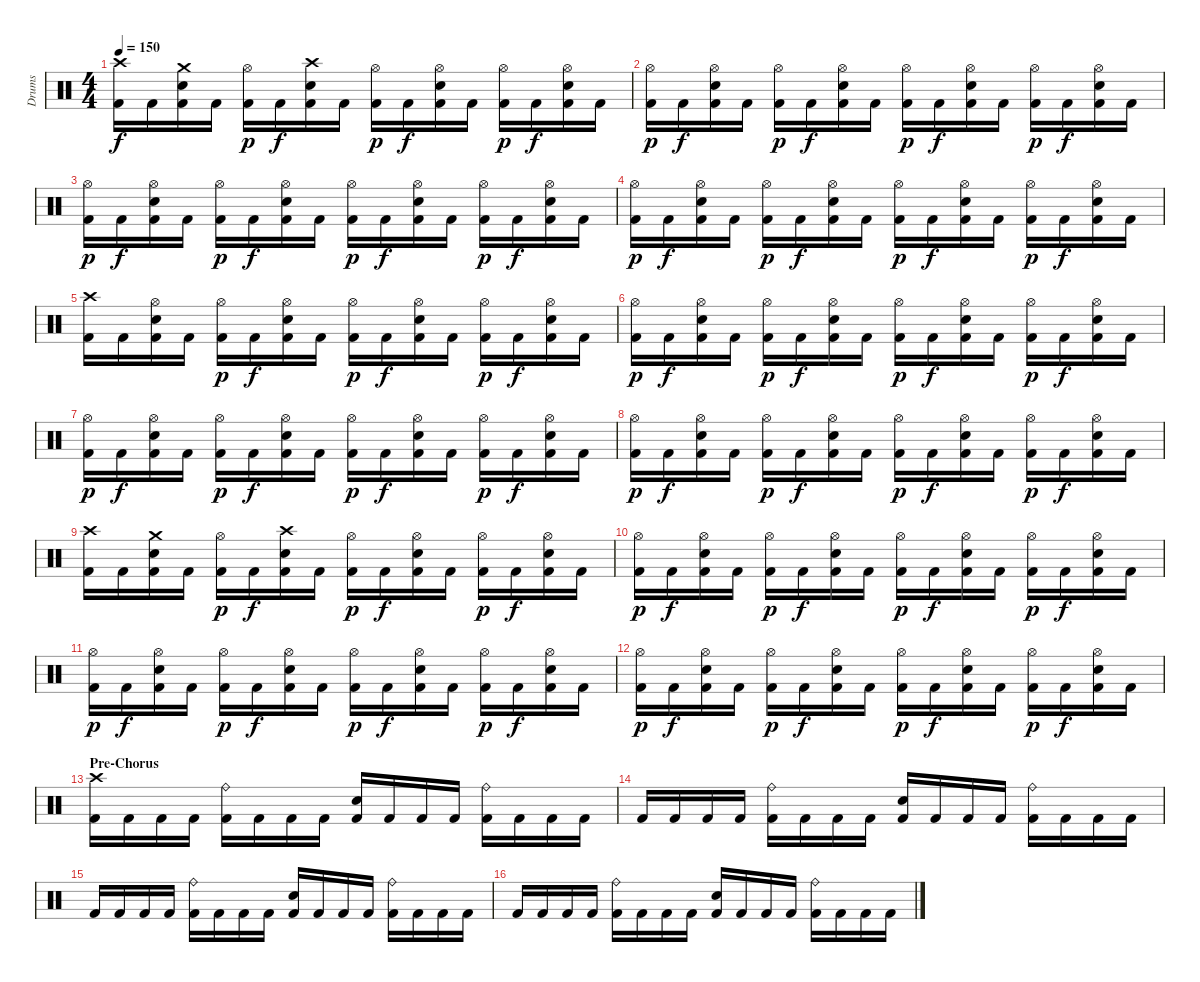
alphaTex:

\track ("Drums" "Drums") {instrument percussion}
\staff {score}
\articulation defaults
\ts (4 4)
\tempo 150
\clef neutral
\ks c
("Crash high (hit)" "Kick (hit) 2").16{dy f} "Kick (hit) 2".16 ("Crash medium (hit)" "Snare (hit) 2" "Kick (hit) 2").16 "Kick (hit) 2".16 ("Hi-Hat (open)" "Kick (hit) 2").16{dy p} "Kick (hit) 2".16{dy f} ("Crash high (hit)" "Snare (hit) 2" "Kick (hit) 2").16 "Kick (hit) 2".16 ("Hi-Hat (open)" "Kick (hit) 2").16{dy p} "Kick (hit) 2".16{dy f} ("Hi-Hat (open)" "Snare (hit) 2" "Kick (hit) 2").16 "Kick (hit) 2".16 ("Hi-Hat (open)" "Kick (hit) 2").16{dy p} "Kick (hit) 2".16{dy f} ("Hi-Hat (open)" "Snare (hit) 2" "Kick (hit) 2").16 "Kick (hit) 2".16 |
("Hi-Hat (open)" "Kick (hit) 2").16{dy p} "Kick (hit) 2".16{dy f} ("Hi-Hat (open)" "Snare (hit) 2" "Kick (hit) 2").16 "Kick (hit) 2".16 ("Hi-Hat (open)" "Kick (hit) 2").16{dy p} "Kick (hit) 2".16{dy f} ("Hi-Hat (open)" "Snare (hit) 2" "Kick (hit) 2").16 "Kick (hit) 2".16 ("Hi-Hat (open)" "Kick (hit) 2").16{dy p} "Kick (hit) 2".16{dy f} ("Hi-Hat (open)" "Snare (hit) 2" "Kick (hit) 2").16 "Kick (hit) 2".16 ("Hi-Hat (open)" "Kick (hit) 2").16{dy p} "Kick (hit) 2".16{dy f} ("Hi-Hat (open)" "Snare (hit) 2" "Kick (hit) 2").16 "Kick (hit) 2".16 |
("Hi-Hat (open)" "Kick (hit) 2").16{dy p} "Kick (hit) 2".16{dy f} ("Hi-Hat (open)" "Snare (hit) 2" "Kick (hit) 2").16 "Kick (hit) 2".16 ("Hi-Hat (open)" "Kick (hit) 2").16{dy p} "Kick (hit) 2".16{dy f} ("Hi-Hat (open)" "Snare (hit) 2" "Kick (hit) 2").16 "Kick (hit) 2".16 ("Hi-Hat (open)" "Kick (hit) 2").16{dy p} "Kick (hit) 2".16{dy f} ("Hi-Hat (open)" "Snare (hit) 2" "Kick (hit) 2").16 "Kick (hit) 2".16 ("Hi-Hat (open)" "Kick (hit) 2").16{dy p} "Kick (hit) 2".16{dy f} ("Hi-Hat (open)" "Snare (hit) 2" "Kick (hit) 2").16 "Kick (hit) 2".16 |
("Hi-Hat (open)" "Kick (hit) 2").16{dy p} "Kick (hit) 2".16{dy f} ("Hi-Hat (open)" "Snare (hit) 2" "Kick (hit) 2").16 "Kick (hit) 2".16 ("Hi-Hat (open)" "Kick (hit) 2").16{dy p} "Kick (hit) 2".16{dy f} ("Hi-Hat (open)" "Snare (hit) 2" "Kick (hit) 2").16 "Kick (hit) 2".16 ("Hi-Hat (open)" "Kick (hit) 2").16{dy p} "Kick (hit) 2".16{dy f} ("Hi-Hat (open)" "Snare (hit) 2" "Kick (hit) 2").16 "Kick (hit) 2".16 ("Hi-Hat (open)" "Kick (hit) 2").16{dy p} "Kick (hit) 2".16{dy f} ("Hi-Hat (open)" "Snare (hit) 2" "Kick (hit) 2").16 "Kick (hit) 2".16 |
("Crash high (hit)" "Kick (hit) 2").16 "Kick (hit) 2".16 ("Hi-Hat (open)" "Snare (hit) 2" "Kick (hit) 2").16 "Kick (hit) 2".16 ("Hi-Hat (open)" "Kick (hit) 2").16{dy p} "Kick (hit) 2".16{dy f} ("Hi-Hat (open)" "Snare (hit) 2" "Kick (hit) 2").16 "Kick (hit) 2".16 ("Hi-Hat (open)" "Kick (hit) 2").16{dy p} "Kick (hit) 2".16{dy f} ("Hi-Hat (open)" "Snare (hit) 2" "Kick (hit) 2").16 "Kick (hit) 2".16 ("Hi-Hat (open)" "Kick (hit) 2").16{dy p} "Kick (hit) 2".16{dy f} ("Hi-Hat (open)" "Snare (hit) 2" "Kick (hit) 2").16 "Kick (hit) 2".16 |
("Hi-Hat (open)" "Kick (hit) 2").16{dy p} "Kick (hit) 2".16{dy f} ("Hi-Hat (open)" "Snare (hit) 2" "Kick (hit) 2").16 "Kick (hit) 2".16 ("Hi-Hat (open)" "Kick (hit) 2").16{dy p} "Kick (hit) 2".16{dy f} ("Hi-Hat (open)" "Snare (hit) 2" "Kick (hit) 2").16 "Kick (hit) 2".16 ("Hi-Hat (open)" "Kick (hit) 2").16{dy p} "Kick (hit) 2".16{dy f} ("Hi-Hat (open)" "Snare (hit) 2" "Kick (hit) 2").16 "Kick (hit) 2".16 ("Hi-Hat (open)" "Kick (hit) 2").16{dy p} "Kick (hit) 2".16{dy f} ("Hi-Hat (open)" "Snare (hit) 2" "Kick (hit) 2").16 "Kick (hit) 2".16 |
("Hi-Hat (open)" "Kick (hit) 2").16{dy p} "Kick (hit) 2".16{dy f} ("Hi-Hat (open)" "Snare (hit) 2" "Kick (hit) 2").16 "Kick (hit) 2".16 ("Hi-Hat (open)" "Kick (hit) 2").16{dy p} "Kick (hit) 2".16{dy f} ("Hi-Hat (open)" "Snare (hit) 2" "Kick (hit) 2").16 "Kick (hit) 2".16 ("Hi-Hat (open)" "Kick (hit) 2").16{dy p} "Kick (hit) 2".16{dy f} ("Hi-Hat (open)" "Snare (hit) 2" "Kick (hit) 2").16 "Kick (hit) 2".16 ("Hi-Hat (open)" "Kick (hit) 2").16{dy p} "Kick (hit) 2".16{dy f} ("Hi-Hat (open)" "Snare (hit) 2" "Kick (hit) 2").16 "Kick (hit) 2".16 |
("Hi-Hat (open)" "Kick (hit) 2").16{dy p} "Kick (hit) 2".16{dy f} ("Hi-Hat (open)" "Snare (hit) 2" "Kick (hit) 2").16 "Kick (hit) 2".16 ("Hi-Hat (open)" "Kick (hit) 2").16{dy p} "Kick (hit) 2".16{dy f} ("Hi-Hat (open)" "Snare (hit) 2" "Kick (hit) 2").16 "Kick (hit) 2".16 ("Hi-Hat (open)" "Kick (hit) 2").16{dy p} "Kick (hit) 2".16{dy f} ("Hi-Hat (open)" "Snare (hit) 2" "Kick (hit) 2").16 "Kick (hit) 2".16 ("Hi-Hat (open)" "Kick (hit) 2").16{dy p} "Kick (hit) 2".16{dy f} ("Hi-Hat (open)" "Snare (hit) 2" "Kick (hit) 2").16 "Kick (hit) 2".16 |
("Crash high (hit)" "Kick (hit) 2").16 "Kick (hit) 2".16 ("Crash medium (hit)" "Snare (hit) 2" "Kick (hit) 2").16 "Kick (hit) 2".16 ("Hi-Hat (open)" "Kick (hit) 2").16{dy p} "Kick (hit) 2".16{dy f} ("Crash high (hit)" "Snare (hit) 2" "Kick (hit) 2").16 "Kick (hit) 2".16 ("Hi-Hat (open)" "Kick (hit) 2").16{dy p} "Kick (hit) 2".16{dy f} ("Hi-Hat (open)" "Snare (hit) 2" "Kick (hit) 2").16 "Kick (hit) 2".16 ("Hi-Hat (open)" "Kick (hit) 2").16{dy p} "Kick (hit) 2".16{dy f} ("Hi-Hat (open)" "Snare (hit) 2" "Kick (hit) 2").16 "Kick (hit) 2".16 |
("Hi-Hat (open)" "Kick (hit) 2").16{dy p} "Kick (hit) 2".16{dy f} ("Hi-Hat (open)" "Snare (hit) 2" "Kick (hit) 2").16 "Kick (hit) 2".16 ("Hi-Hat (open)" "Kick (hit) 2").16{dy p} "Kick (hit) 2".16{dy f} ("Hi-Hat (open)" "Snare (hit) 2" "Kick (hit) 2").16 "Kick (hit) 2".16 ("Hi-Hat (open)" "Kick (hit) 2").16{dy p} "Kick (hit) 2".16{dy f} ("Hi-Hat (open)" "Snare (hit) 2" "Kick (hit) 2").16 "Kick (hit) 2".16 ("Hi-Hat (open)" "Kick (hit) 2").16{dy p} "Kick (hit) 2".16{dy f} ("Hi-Hat (open)" "Snare (hit) 2" "Kick (hit) 2").16 "Kick (hit) 2".16 |
("Hi-Hat (open)" "Kick (hit) 2").16{dy p} "Kick (hit) 2".16{dy f} ("Hi-Hat (open)" "Snare (hit) 2" "Kick (hit) 2").16 "Kick (hit) 2".16 ("Hi-Hat (open)" "Kick (hit) 2").16{dy p} "Kick (hit) 2".16{dy f} ("Hi-Hat (open)" "Snare (hit) 2" "Kick (hit) 2").16 "Kick (hit) 2".16 ("Hi-Hat (open)" "Kick (hit) 2").16{dy p} "Kick (hit) 2".16{dy f} ("Hi-Hat (open)" "Snare (hit) 2" "Kick (hit) 2").16 "Kick (hit) 2".16 ("Hi-Hat (open)" "Kick (hit) 2").16{dy p} "Kick (hit) 2".16{dy f} ("Hi-Hat (open)" "Snare (hit) 2" "Kick (hit) 2").16 "Kick (hit) 2".16 |
("Hi-Hat (open)" "Kick (hit) 2").16{dy p} "Kick (hit) 2".16{dy f} ("Hi-Hat (open)" "Snare (hit) 2" "Kick (hit) 2").16 "Kick (hit) 2".16 ("Hi-Hat (open)" "Kick (hit) 2").16{dy p} "Kick (hit) 2".16{dy f} ("Hi-Hat (open)" "Snare (hit) 2" "Kick (hit) 2").16 "Kick (hit) 2".16 ("Hi-Hat (open)" "Kick (hit) 2").16{dy p} "Kick (hit) 2".16{dy f} ("Hi-Hat (open)" "Snare (hit) 2" "Kick (hit) 2").16 "Kick (hit) 2".16 ("Hi-Hat (open)" "Kick (hit) 2").16{dy p} "Kick (hit) 2".16{dy f} ("Hi-Hat (open)" "Snare (hit) 2" "Kick (hit) 2").16 "Kick (hit) 2".16 |
\section ("" "Pre-Chorus")
("Crash high (hit)" "Kick (hit) 2").16 "Kick (hit) 2".16 "Kick (hit) 2".16 "Kick (hit) 2".16 ("Ride (bell)" "Kick (hit) 2").16 "Kick (hit) 2".16 "Kick (hit) 2".16 "Kick (hit) 2".16 ("Snare (hit) 2" "Kick (hit) 2").16 "Kick (hit) 2".16 "Kick (hit) 2".16 "Kick (hit) 2".16 ("Ride (bell)" "Kick (hit) 2").16 "Kick (hit) 2".16 "Kick (hit) 2".16 "Kick (hit) 2".16 |
"Kick (hit) 2".16 "Kick (hit) 2".16 "Kick (hit) 2".16 "Kick (hit) 2".16 ("Ride (bell)" "Kick (hit) 2").16 "Kick (hit) 2".16 "Kick (hit) 2".16 "Kick (hit) 2".16 ("Snare (hit) 2" "Kick (hit) 2").16 "Kick (hit) 2".16 "Kick (hit) 2".16 "Kick (hit) 2".16 ("Ride (bell)" "Kick (hit) 2").16 "Kick (hit) 2".16 "Kick (hit) 2".16 "Kick (hit) 2".16 |
"Kick (hit) 2".16 "Kick (hit) 2".16 "Kick (hit) 2".16 "Kick (hit) 2".16 ("Ride (bell)" "Kick (hit) 2").16 "Kick (hit) 2".16 "Kick (hit) 2".16 "Kick (hit) 2".16 ("Snare (hit) 2" "Kick (hit) 2").16 "Kick (hit) 2".16 "Kick (hit) 2".16 "Kick (hit) 2".16 ("Ride (bell)" "Kick (hit) 2").16 "Kick (hit) 2".16 "Kick (hit) 2".16 "Kick (hit) 2".16 |
"Kick (hit) 2".16 "Kick (hit) 2".16 "Kick (hit) 2".16 "Kick (hit) 2".16 ("Ride (bell)" "Kick (hit) 2").16 "Kick (hit) 2".16 "Kick (hit) 2".16 "Kick (hit) 2".16 ("Snare (hit) 2" "Kick (hit) 2").16 "Kick (hit) 2".16 "Kick (hit) 2".16 "Kick (hit) 2".16 ("Ride (bell)" "Kick (hit) 2").16 "Kick (hit) 2".16 "Kick (hit) 2".16 "Kick (hit) 2".16
